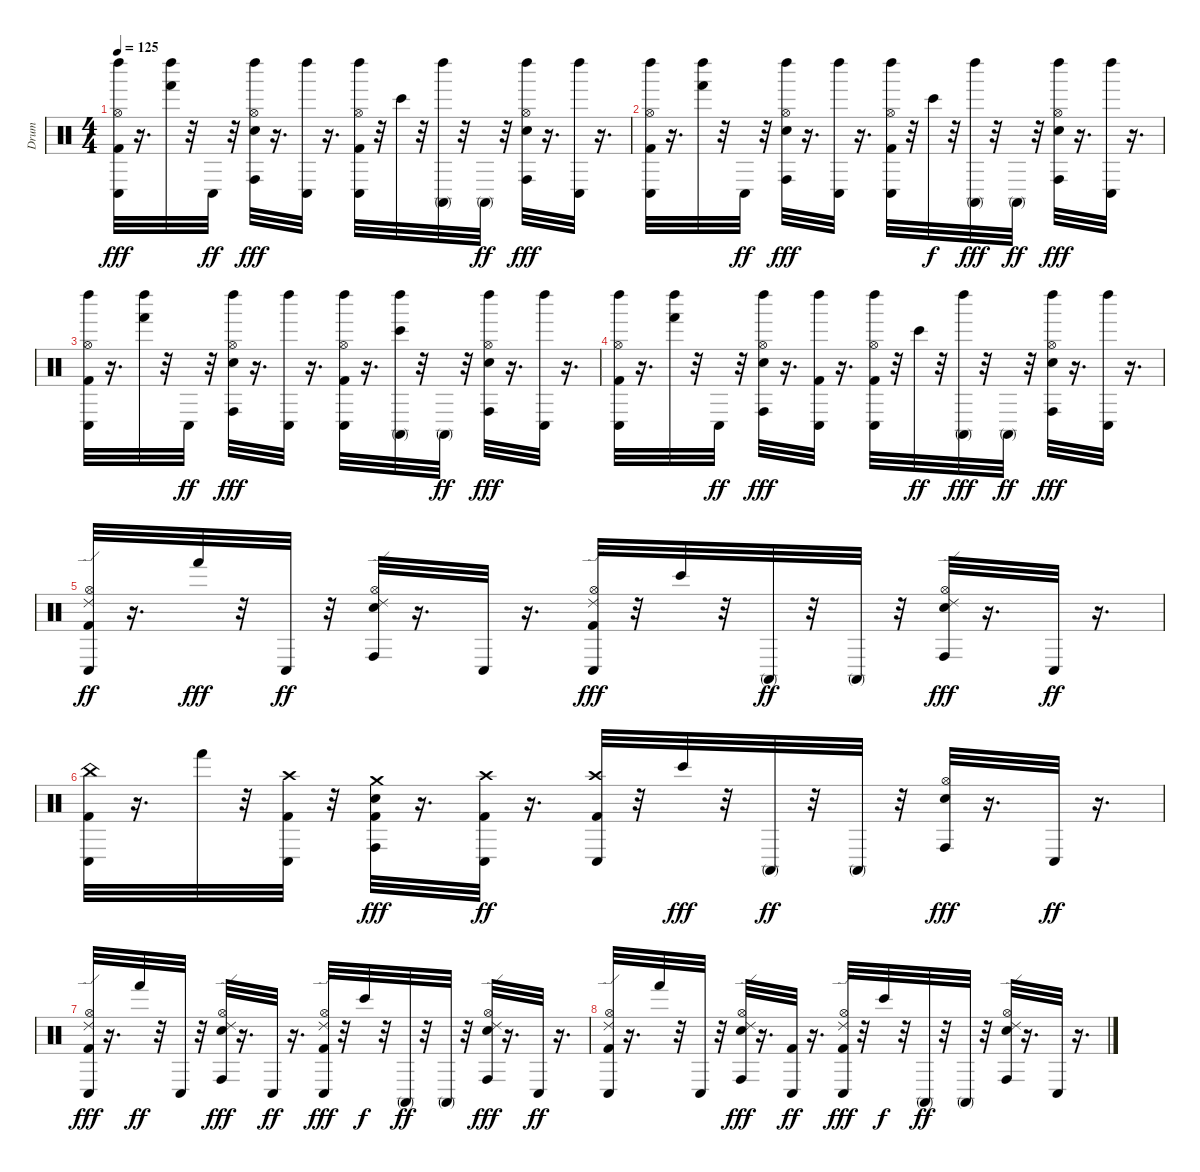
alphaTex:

\track ("Drum" "Drum") {instrument percussion}
\staff {score}
\articulation defaults
\ts (4 4)
\tempo 125
\clef neutral
\ks c
("Kick (hit) 2" "Hi-Hat (open)" "Conga low (hit)" "Left Maraca (hit)").32{dy fff} r.16{d} ("Hand (hit)" "Left Maraca (hit)").32 r.32 "Conga low (hit)".32{dy ff} r.32 ("Hi-Hat (open)" "Conga high (hit)" "Electric Snare (hit)" "Left Maraca (hit)").32{dy fff} r.16{d} ("Conga low (hit)" "Left Maraca (hit)").32 r.16{d} ("Kick (hit) 2" "Hi-Hat (open)" "Conga low (hit)" "Left Maraca (hit)").32 r.32 "Bongo High (hit)".32 r.32 ("Conga high (mute)" "Left Maraca (hit)").32 r.32 "Conga high (mute)".32{dy ff} r.32 ("Hi-Hat (open)" "Conga high (hit)" "Electric Snare (hit)" "Left Maraca (hit)").32{dy fff} r.16{d} ("Conga low (hit)" "Left Maraca (hit)").32 r.16{d} |
("Kick (hit) 2" "Hi-Hat (open)" "Conga low (hit)" "Left Maraca (hit)").32 r.16{d} ("Hand (hit)" "Left Maraca (hit)").32 r.32 "Conga low (hit)".32{dy ff} r.32 ("Hi-Hat (open)" "Conga high (hit)" "Electric Snare (hit)" "Left Maraca (hit)").32{dy fff} r.16{d} ("Conga low (hit)" "Left Maraca (hit)").32 r.16{d} ("Kick (hit) 2" "Hi-Hat (open)" "Conga low (hit)" "Left Maraca (hit)").32 r.32 "Bongo High (hit)".32{dy f} r.32 ("Conga high (mute)" "Left Maraca (hit)").32{dy fff} r.32 "Conga high (mute)".32{dy ff} r.32 ("Hi-Hat (open)" "Conga high (hit)" "Electric Snare (hit)" "Left Maraca (hit)").32{dy fff} r.16{d} ("Conga low (hit)" "Left Maraca (hit)").32 r.16{d} |
("Kick (hit) 2" "Hi-Hat (open)" "Conga low (hit)" "Left Maraca (hit)").32 r.16{d} ("Hand (hit)" "Left Maraca (hit)").32 r.32 "Conga low (hit)".32{dy ff} r.32 ("Hi-Hat (open)" "Conga high (hit)" "Electric Snare (hit)" "Left Maraca (hit)").32{dy fff} r.16{d} ("Conga low (hit)" "Left Maraca (hit)").32 r.16{d} ("Kick (hit) 2" "Hi-Hat (open)" "Conga low (hit)" "Left Maraca (hit)").32 r.16{d} ("Bongo High (hit)" "Conga high (mute)" "Left Maraca (hit)").32 r.32 "Conga high (mute)".32{dy ff} r.32 ("Hi-Hat (open)" "Conga high (hit)" "Electric Snare (hit)" "Left Maraca (hit)").32{dy fff} r.16{d} ("Conga low (hit)" "Left Maraca (hit)").32 r.16{d} |
("Kick (hit) 2" "Hi-Hat (open)" "Conga low (hit)" "Left Maraca (hit)").32 r.16{d} ("Hand (hit)" "Left Maraca (hit)").32 r.32 "Conga low (hit)".32{dy ff} r.32 ("Hi-Hat (open)" "Conga high (hit)" "Electric Snare (hit)" "Left Maraca (hit)").32{dy fff} r.16{d} ("Kick (hit) 2" "Conga low (hit)" "Left Maraca (hit)").32 r.16{d} ("Kick (hit) 2" "Hi-Hat (open)" "Conga low (hit)" "Left Maraca (hit)").32 r.32 "Bongo High (hit)".32{dy ff} r.32 ("Conga high (mute)" "Left Maraca (hit)").32{dy fff} r.32 "Conga high (mute)".32{dy ff} r.32 ("Hi-Hat (open)" "Conga high (hit)" "Electric Snare (hit)" "Left Maraca (hit)").32{dy fff} r.16{d} ("Conga low (hit)" "Left Maraca (hit)").32 r.16{d} |
("Kick (hit) 2" "Hi-Hat (open)" "Conga low (hit)" "Ride (edge) 2").32{dy ff} r.16{d} "Hand (hit)".32{dy fff} r.32 "Conga low (hit)".32{dy ff} r.32 ("Hi-Hat (open)" "Conga high (hit)" "Electric Snare (hit)" "Ride (edge) 2").32 r.16{d} "Conga low (hit)".32 r.16{d} ("Kick (hit) 2" "Hi-Hat (open)" "Conga low (hit)" "Ride (edge) 2").32{dy fff} r.32 "Bongo High (hit)".32 r.32 "Conga high (mute)".32{dy ff} r.32 "Conga high (mute)".32 r.32 ("Hi-Hat (open)" "Conga high (hit)" "Electric Snare (hit)" "Ride (edge) 2").32{dy fff} r.16{d} "Conga low (hit)".32{dy ff} r.16{d} |
("Kick (hit) 2" "Conga low (hit)" "China (hit)").32 r.16{d} "Hand (hit)".32 r.32 ("Kick (hit) 2" "Conga low (hit)" "Crash high (hit)").32 r.32 ("Kick (hit) 2" "Conga high (hit)" "Electric Snare (hit)" "Crash medium (hit)").32{dy fff} r.16{d} ("Kick (hit) 2" "Conga low (hit)" "Crash high (hit)").32{dy ff} r.16{d} ("Kick (hit) 2" "Conga low (hit)" "Crash high (hit)").32 r.32 "Bongo High (hit)".32{dy fff} r.32 "Conga high (mute)".32{dy ff} r.32 "Conga high (mute)".32 r.32 ("Hi-Hat (open)" "Conga high (hit)" "Electric Snare (hit)").32{dy fff} r.16{d} "Conga low (hit)".32{dy ff} r.16{d} |
("Kick (hit) 2" "Hi-Hat (open)" "Conga low (hit)" "Ride (edge) 2").32{dy fff} r.16{d} "Hand (hit)".32{dy ff} r.32 "Conga low (hit)".32 r.32 ("Hi-Hat (open)" "Conga high (hit)" "Electric Snare (hit)" "Ride (edge) 2").32{dy fff} r.16{d} "Conga low (hit)".32{dy ff} r.16{d} ("Kick (hit) 2" "Hi-Hat (open)" "Conga low (hit)" "Ride (edge) 2").32{dy fff} r.32 "Bongo High (hit)".32{dy f} r.32 "Conga high (mute)".32{dy ff} r.32 "Conga high (mute)".32 r.32 ("Hi-Hat (open)" "Conga high (hit)" "Electric Snare (hit)" "Ride (edge) 2").32{dy fff} r.16{d} "Conga low (hit)".32{dy ff} r.16{d} |
("Kick (hit) 2" "Hi-Hat (open)" "Conga low (hit)" "Ride (edge) 2").32 r.16{d} "Hand (hit)".32 r.32 "Conga low (hit)".32 r.32 ("Hi-Hat (open)" "Conga high (hit)" "Electric Snare (hit)" "Ride (edge) 2").32{dy fff} r.16{d} ("Kick (hit) 2" "Conga low (hit)").32{dy ff} r.16{d} ("Kick (hit) 2" "Hi-Hat (open)" "Conga low (hit)" "Ride (edge) 2").32{dy fff} r.32 "Bongo High (hit)".32{dy f} r.32 "Conga high (mute)".32{dy ff} r.32 "Conga high (mute)".32 r.32 ("Hi-Hat (open)" "Conga high (hit)" "Electric Snare (hit)" "Ride (edge) 2").32 r.16{d} "Conga low (hit)".32 r.16{d}
